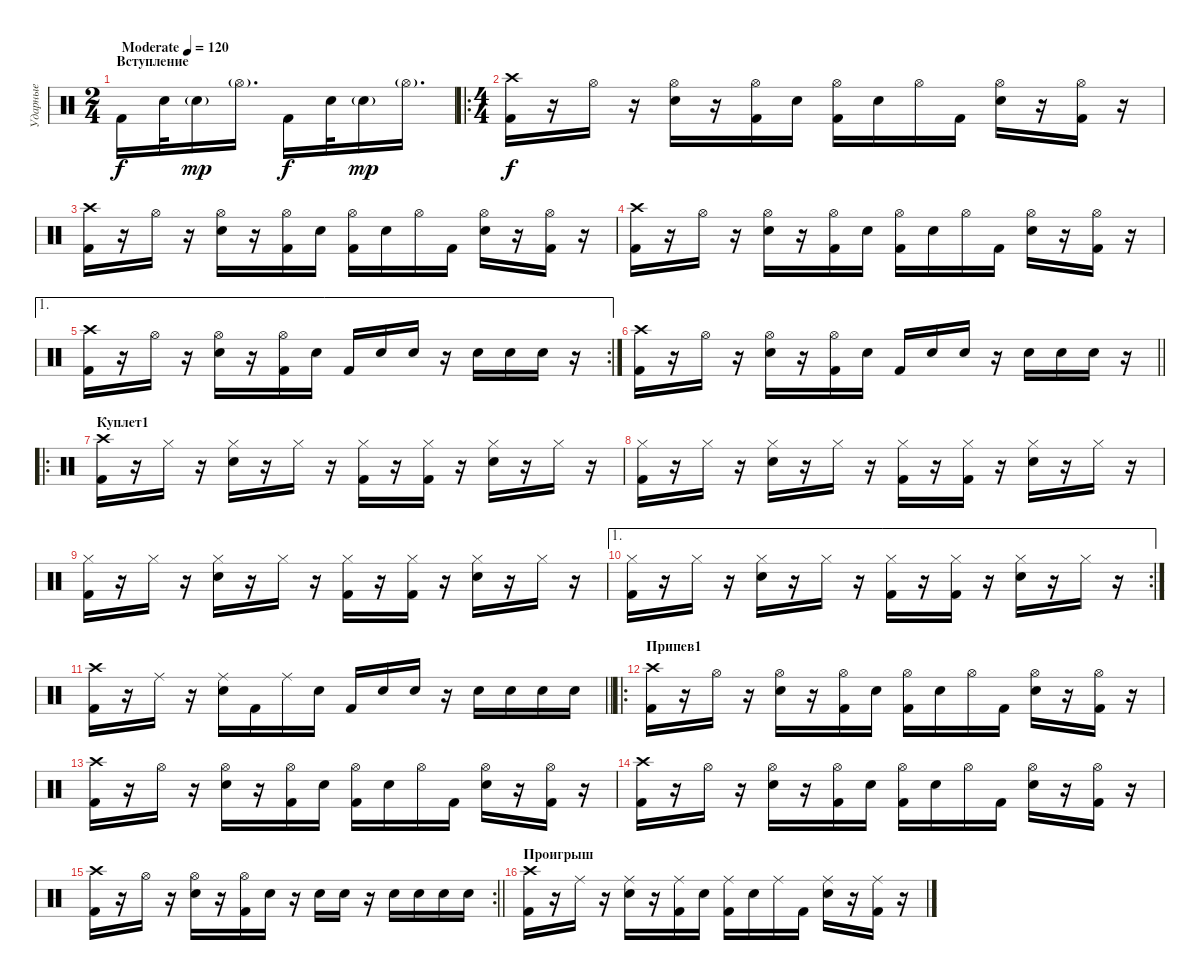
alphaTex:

\track ("Ударные" "Ударные") {instrument percussion}
\staff {score}
\articulation defaults
\ts (2 4)
\section ("" "Вступление")
\tempo (120 "Moderate")
\clef neutral
\ks c "Kick (hit) 2".16{dy f} "Electric Snare (hit)".32 "Electric Snare (hit)"{g}.16{dy mp} "Hi-Hat (open)"{g}.16{d} "Kick (hit) 2".16{dy f} "Electric Snare (hit)".32 "Electric Snare (hit)"{g}.16{dy mp} "Hi-Hat (open)"{g}.16{d}
|
\ro
\ts (4 4)
("Crash high (hit)" "Kick (hit) 2").16{dy f} r.16 "Hi-Hat (open)".16 r.16 ("Hi-Hat (open)" "Electric Snare (hit)").16 r.16 ("Hi-Hat (open)" "Kick (hit) 2").16 "Electric Snare (hit)".16 ("Hi-Hat (open)" "Kick (hit) 2").16 "Electric Snare (hit)".16 "Hi-Hat (open)".16 "Kick (hit) 2".16 ("Hi-Hat (open)" "Electric Snare (hit)").16 r.16 ("Hi-Hat (open)" "Kick (hit) 2").16 r.16 |
("Crash high (hit)" "Kick (hit) 2").16 r.16 "Hi-Hat (open)".16 r.16 ("Hi-Hat (open)" "Electric Snare (hit)").16 r.16 ("Hi-Hat (open)" "Kick (hit) 2").16 "Electric Snare (hit)".16 ("Hi-Hat (open)" "Kick (hit) 2").16 "Electric Snare (hit)".16 "Hi-Hat (open)".16 "Kick (hit) 2".16 ("Hi-Hat (open)" "Electric Snare (hit)").16 r.16 ("Hi-Hat (open)" "Kick (hit) 2").16 r.16 |
("Crash high (hit)" "Kick (hit) 2").16 r.16 "Hi-Hat (open)".16 r.16 ("Hi-Hat (open)" "Electric Snare (hit)").16 r.16 ("Hi-Hat (open)" "Kick (hit) 2").16 "Electric Snare (hit)".16 ("Hi-Hat (open)" "Kick (hit) 2").16 "Electric Snare (hit)".16 "Hi-Hat (open)".16 "Kick (hit) 2".16 ("Hi-Hat (open)" "Electric Snare (hit)").16 r.16 ("Hi-Hat (open)" "Kick (hit) 2").16 r.16 |
\ae 1
\rc 2
("Crash high (hit)" "Kick (hit) 2").16 r.16 "Hi-Hat (open)".16 r.16 ("Hi-Hat (open)" "Electric Snare (hit)").16 r.16 ("Hi-Hat (open)" "Kick (hit) 2").16 "Electric Snare (hit)".16 "Kick (hit) 2".16 "Electric Snare (hit)".16 "Electric Snare (hit)".16 r.16 "Electric Snare (hit)".16 "Electric Snare (hit)".16 "Electric Snare (hit)".16 r.16 |
\barLineRight lightlight
("Crash high (hit)" "Kick (hit) 2").16 r.16 "Hi-Hat (open)".16 r.16 ("Hi-Hat (open)" "Electric Snare (hit)").16 r.16 ("Hi-Hat (open)" "Kick (hit) 2").16 "Electric Snare (hit)".16 "Kick (hit) 2".16 "Electric Snare (hit)".16 "Electric Snare (hit)".16 r.16 "Electric Snare (hit)".16 "Electric Snare (hit)".16 "Electric Snare (hit)".16 r.16 |
\ro
\section ("" "Куплет1")
("Crash high (hit)" "Kick (hit) 2").16 r.16 "Hi-Hat (closed)".16 r.16 ("Hi-Hat (closed)" "Electric Snare (hit)").16 r.16 "Hi-Hat (closed)".16 r.16 ("Hi-Hat (closed)" "Kick (hit) 2").16 r.16 ("Hi-Hat (closed)" "Kick (hit) 2").16 r.16 ("Hi-Hat (closed)" "Electric Snare (hit)").16 r.16 "Hi-Hat (closed)".16 r.16 |
("Hi-Hat (closed)" "Kick (hit) 2").16 r.16 "Hi-Hat (closed)".16 r.16 ("Hi-Hat (closed)" "Electric Snare (hit)").16 r.16 "Hi-Hat (closed)".16 r.16 ("Hi-Hat (closed)" "Kick (hit) 2").16 r.16 ("Hi-Hat (closed)" "Kick (hit) 2").16 r.16 ("Hi-Hat (closed)" "Electric Snare (hit)").16 r.16 "Hi-Hat (closed)".16 r.16 |
("Hi-Hat (closed)" "Kick (hit) 2").16 r.16 "Hi-Hat (closed)".16 r.16 ("Hi-Hat (closed)" "Electric Snare (hit)").16 r.16 "Hi-Hat (closed)".16 r.16 ("Hi-Hat (closed)" "Kick (hit) 2").16 r.16 ("Hi-Hat (closed)" "Kick (hit) 2").16 r.16 ("Hi-Hat (closed)" "Electric Snare (hit)").16 r.16 "Hi-Hat (closed)".16 r.16 |
\ae 1
\rc 2
("Hi-Hat (closed)" "Kick (hit) 2").16 r.16 "Hi-Hat (closed)".16 r.16 ("Hi-Hat (closed)" "Electric Snare (hit)").16 r.16 "Hi-Hat (closed)".16 r.16 ("Hi-Hat (closed)" "Kick (hit) 2").16 r.16 ("Hi-Hat (closed)" "Kick (hit) 2").16 r.16 ("Hi-Hat (closed)" "Electric Snare (hit)").16 r.16 "Hi-Hat (closed)".16 r.16 |
\barLineRight lightlight
("Crash high (hit)" "Kick (hit) 2").16 r.16 "Ride (middle)".16 r.16 ("Ride (middle)" "Electric Snare (hit)").16 "Kick (hit) 2".16 "Ride (middle)".16 "Electric Snare (hit)".16 "Kick (hit) 2".16 "Electric Snare (hit)".16 "Electric Snare (hit)".16 r.16 "Electric Snare (hit)".16 "Electric Snare (hit)".16 "Electric Snare (hit)".16 "Electric Snare (hit)".16 |
\ro
\section ("" "Припев1")
("Crash high (hit)" "Kick (hit) 2").16 r.16 "Hi-Hat (open)".16 r.16 ("Hi-Hat (open)" "Electric Snare (hit)").16 r.16 ("Hi-Hat (open)" "Kick (hit) 2").16 "Electric Snare (hit)".16 ("Hi-Hat (open)" "Kick (hit) 2").16 "Electric Snare (hit)".16 "Hi-Hat (open)".16 "Kick (hit) 2".16 ("Hi-Hat (open)" "Electric Snare (hit)").16 r.16 ("Hi-Hat (open)" "Kick (hit) 2").16 r.16 |
("Crash high (hit)" "Kick (hit) 2").16 r.16 "Hi-Hat (open)".16 r.16 ("Hi-Hat (open)" "Electric Snare (hit)").16 r.16 ("Hi-Hat (open)" "Kick (hit) 2").16 "Electric Snare (hit)".16 ("Hi-Hat (open)" "Kick (hit) 2").16 "Electric Snare (hit)".16 "Hi-Hat (open)".16 "Kick (hit) 2".16 ("Hi-Hat (open)" "Electric Snare (hit)").16 r.16 ("Hi-Hat (open)" "Kick (hit) 2").16 r.16 |
("Crash high (hit)" "Kick (hit) 2").16 r.16 "Hi-Hat (open)".16 r.16 ("Hi-Hat (open)" "Electric Snare (hit)").16 r.16 ("Hi-Hat (open)" "Kick (hit) 2").16 "Electric Snare (hit)".16 ("Hi-Hat (open)" "Kick (hit) 2").16 "Electric Snare (hit)".16 "Hi-Hat (open)".16 "Kick (hit) 2".16 ("Hi-Hat (open)" "Electric Snare (hit)").16 r.16 ("Hi-Hat (open)" "Kick (hit) 2").16 r.16 |
\rc 2
\barLineRight lightlight
("Crash high (hit)" "Kick (hit) 2").16 r.16 "Hi-Hat (open)".16 r.16 ("Hi-Hat (open)" "Electric Snare (hit)").16 r.16 ("Hi-Hat (open)" "Kick (hit) 2").16 "Electric Snare (hit)".16 r.16 "Electric Snare (hit)".16 "Electric Snare (hit)".16 r.16 "Electric Snare (hit)".16 "Electric Snare (hit)".16 "Electric Snare (hit)".16 "Electric Snare (hit)".16 |
\section ("" "Проигрыш")
("Crash high (hit)" "Kick (hit) 2").16 r.16 "Ride (middle)".16 r.16 ("Ride (middle)" "Electric Snare (hit)").16 r.16 ("Ride (middle)" "Kick (hit) 2").16 "Electric Snare (hit)".16 ("Ride (middle)" "Kick (hit) 2").16 "Electric Snare (hit)".16 "Ride (middle)".16 "Kick (hit) 2".16 ("Ride (middle)" "Electric Snare (hit)").16 r.16 ("Ride (middle)" "Kick (hit) 2").16 r.16
